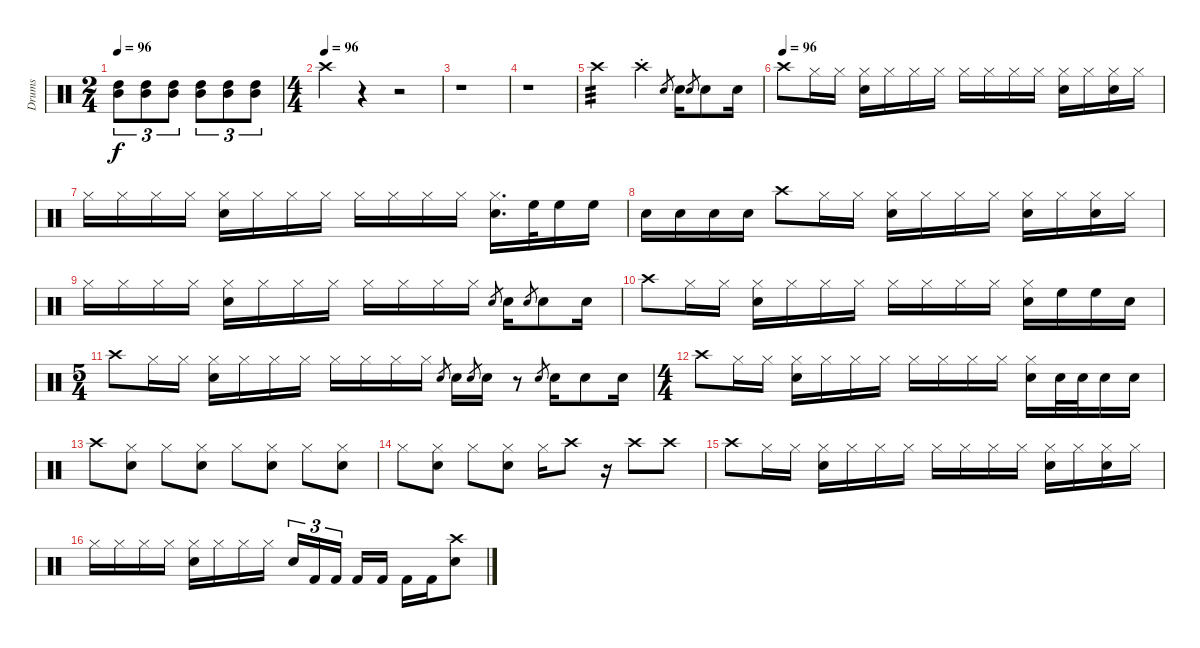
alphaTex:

\track ("Drums" "Drums") {instrument percussion}
\staff {score}
\articulation defaults
\ts (2 4)
\tempo 96
\clef neutral
\ks c
("Mid Tom (hit)" "High Tom (hit)").8{tu (3 2) dy f} ("Mid Tom (hit)" "High Tom (hit)").8{tu (3 2)} ("Mid Tom (hit)" "High Tom (hit)").8{tu (3 2)} ("Mid Tom (hit)" "High Tom (hit)").8{tu (3 2)} ("Mid Tom (hit)" "High Tom (hit)").8{tu (3 2)} ("Mid Tom (hit)" "High Tom (hit)").8{tu (3 2)} |
\ts (4 4)
\tempo (96)
"Crash high (hit)".4 r.4 r.2 |
r.1 |
r.1 |
"Crash high (hit)".2{tp 3 volume 13} "Crash high (hit)"{st}.4 "Snare (hit) 2".8{gr} "Snare (hit) 2".16 "Snare (hit) 2".8{gr} "Snare (hit) 2".8 "Snare (hit) 2".16 |
\tempo (96)
"Crash high (hit)".8 "Hi-Hat (closed)".16 "Hi-Hat (closed)".16 ("Hi-Hat (closed)" "Snare (hit) 2").16 "Hi-Hat (closed)".16 "Hi-Hat (closed)".16 "Hi-Hat (closed)".16 "Hi-Hat (closed)".16 "Hi-Hat (closed)".16 "Hi-Hat (closed)".16 "Hi-Hat (closed)".16 ("Hi-Hat (closed)" "Snare (hit) 2").16 "Hi-Hat (closed)".16 ("Hi-Hat (closed)" "Snare (hit) 2").16 "Hi-Hat (closed)".16 |
"Hi-Hat (closed)".16 "Hi-Hat (closed)".16 "Hi-Hat (closed)".16 "Hi-Hat (closed)".16 ("Hi-Hat (closed)" "Snare (hit) 2").16 "Hi-Hat (closed)".16 "Hi-Hat (closed)".16 "Hi-Hat (closed)".16 "Hi-Hat (closed)".16 "Hi-Hat (closed)".16 "Hi-Hat (closed)".16 "Hi-Hat (closed)".16 ("Hi-Hat (closed)" "Snare (hit) 2").16{d} "High Floor Tom (hit)".32 "High Floor Tom (hit)".16 "High Floor Tom (hit)".16 |
"Snare (hit) 2".16 "Snare (hit) 2".16 "Snare (hit) 2".16 "Snare (hit) 2".16 "Crash high (hit)".8 "Hi-Hat (closed)".16 "Hi-Hat (closed)".16 ("Hi-Hat (closed)" "Snare (hit) 2").16 "Hi-Hat (closed)".16 "Hi-Hat (closed)".16 "Hi-Hat (closed)".16 ("Hi-Hat (closed)" "Snare (hit) 2").16 "Hi-Hat (closed)".16 ("Hi-Hat (closed)" "Snare (hit) 2").16 "Hi-Hat (closed)".16 |
"Hi-Hat (closed)".16 "Hi-Hat (closed)".16 "Hi-Hat (closed)".16 "Hi-Hat (closed)".16 ("Hi-Hat (closed)" "Snare (hit) 2").16 "Hi-Hat (closed)".16 "Hi-Hat (closed)".16 "Hi-Hat (closed)".16 "Hi-Hat (closed)".16 "Hi-Hat (closed)".16 "Hi-Hat (closed)".16 "Hi-Hat (closed)".16 "Snare (hit) 2".8{gr} "Snare (hit) 2".16 "Snare (hit) 2".8{gr} "Snare (hit) 2".8 "Snare (hit) 2".16 |
"Crash high (hit)".8 "Hi-Hat (closed)".16 "Hi-Hat (closed)".16 ("Hi-Hat (closed)" "Snare (hit) 2").16 "Hi-Hat (closed)".16 "Hi-Hat (closed)".16 "Hi-Hat (closed)".16 "Hi-Hat (closed)".16 "Hi-Hat (closed)".16 "Hi-Hat (closed)".16 "Hi-Hat (closed)".16 ("Hi-Hat (closed)" "Snare (hit) 2").16 "High Floor Tom (hit)".16 "High Floor Tom (hit)".16 "Snare (hit) 2".16 |
\ts (5 4)
"Crash high (hit)".8 "Hi-Hat (closed)".16 "Hi-Hat (closed)".16 ("Hi-Hat (closed)" "Snare (hit) 2").16 "Hi-Hat (closed)".16 "Hi-Hat (closed)".16 "Hi-Hat (closed)".16 "Hi-Hat (closed)".16 "Hi-Hat (closed)".16 "Hi-Hat (closed)".16 "Hi-Hat (closed)".16 "Snare (hit) 2".8{gr} "Snare (hit) 2".16 "Snare (hit) 2".8{gr} "Snare (hit) 2".16 r.8 "Snare (hit) 2".8{gr} "Snare (hit) 2".16 "Snare (hit) 2".8 "Snare (hit) 2".16 |
\ts (4 4)
"Crash high (hit)".8 "Hi-Hat (closed)".16 "Hi-Hat (closed)".16 ("Hi-Hat (closed)" "Snare (hit) 2").16 "Hi-Hat (closed)".16 "Hi-Hat (closed)".16 "Hi-Hat (closed)".16 "Hi-Hat (closed)".16 "Hi-Hat (closed)".16 "Hi-Hat (closed)".16 "Hi-Hat (closed)".16 ("Hi-Hat (closed)" "Snare (hit) 2").16 "Snare (hit) 2".32 "Snare (hit) 2".32 "Snare (hit) 2".16 "Snare (hit) 2".16 |
"Crash high (hit)".8 ("Hi-Hat (closed)" "Snare (hit) 2").8 "Hi-Hat (closed)".8 ("Hi-Hat (closed)" "Snare (hit) 2").8 "Hi-Hat (closed)".8 ("Hi-Hat (closed)" "Snare (hit) 2").8 "Hi-Hat (closed)".8 ("Hi-Hat (closed)" "Snare (hit) 2").8 |
"Hi-Hat (closed)".8 ("Hi-Hat (closed)" "Snare (hit) 2").8 "Hi-Hat (closed)".8 ("Hi-Hat (closed)" "Snare (hit) 2").8 "Hi-Hat (closed)".16 "Crash high (hit)".8 r.16 "Crash high (hit)".8 "Crash high (hit)".8 |
"Crash high (hit)".8 "Hi-Hat (closed)".16 "Hi-Hat (closed)".16 ("Hi-Hat (closed)" "Snare (hit) 2").16 "Hi-Hat (closed)".16 "Hi-Hat (closed)".16 "Hi-Hat (closed)".16 "Hi-Hat (closed)".16 "Hi-Hat (closed)".16 "Hi-Hat (closed)".16 "Hi-Hat (closed)".16 ("Hi-Hat (closed)" "Snare (hit) 2").16 "Hi-Hat (closed)".16 ("Hi-Hat (closed)" "Snare (hit) 2").16 "Hi-Hat (closed)".16 |
"Hi-Hat (closed)".16 "Hi-Hat (closed)".16 "Hi-Hat (closed)".16 "Hi-Hat (closed)".16 ("Hi-Hat (closed)" "Snare (hit) 2").16 "Hi-Hat (closed)".16 "Hi-Hat (closed)".16 "Hi-Hat (closed)".16 "Snare (hit) 2".16{tu (3 2)} "Kick (hit) 2".16{tu (3 2)} "Kick (hit) 2".16{tu (3 2) beam splitsecondary} "Kick (hit) 2".16 "Kick (hit) 2".16 "Kick (hit) 2".16 "Kick (hit) 2".16 ("Crash high (hit)" "Snare (hit) 2").8
